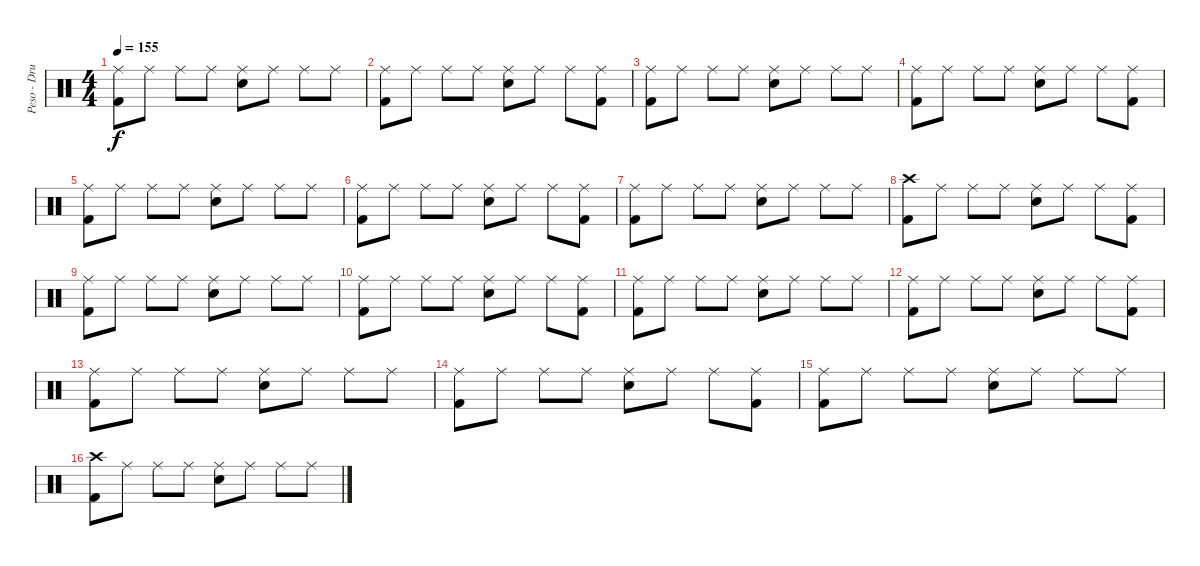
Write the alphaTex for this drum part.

\track ("Peso - Drums" "Peso - Dru") {instrument percussion}
\staff {score}
\articulation defaults
\ts (4 4)
\tempo 155
\clef neutral
\ks c
("Ride (middle)" "Kick (hit) 2").8{dy f} "Ride (middle)".8 "Ride (middle)".8 "Ride (middle)".8 ("Ride (middle)" "Electric Snare (hit)").8 "Ride (middle)".8 "Ride (middle)".8 "Ride (middle)".8 |
("Ride (middle)" "Kick (hit) 2").8 "Ride (middle)".8 "Ride (middle)".8 "Ride (middle)".8 ("Ride (middle)" "Electric Snare (hit)").8 "Ride (middle)".8 "Ride (middle)".8 ("Ride (middle)" "Kick (hit) 2").8 |
("Ride (middle)" "Kick (hit) 2").8 "Ride (middle)".8 "Ride (middle)".8 "Ride (middle)".8 ("Ride (middle)" "Electric Snare (hit)").8 "Ride (middle)".8 "Ride (middle)".8 "Ride (middle)".8 |
("Ride (middle)" "Kick (hit) 2").8{volume 10} "Ride (middle)".8 "Ride (middle)".8 "Ride (middle)".8 ("Ride (middle)" "Electric Snare (hit)").8 "Ride (middle)".8 "Ride (middle)".8 ("Ride (middle)" "Kick (hit) 2").8 |
("Ride (middle)" "Kick (hit) 2").8 "Ride (middle)".8 "Ride (middle)".8 "Ride (middle)".8 ("Ride (middle)" "Electric Snare (hit)").8 "Ride (middle)".8 "Ride (middle)".8 "Ride (middle)".8 |
("Ride (middle)" "Kick (hit) 2").8 "Ride (middle)".8 "Ride (middle)".8 "Ride (middle)".8 ("Ride (middle)" "Electric Snare (hit)").8 "Ride (middle)".8 "Ride (middle)".8 ("Ride (middle)" "Kick (hit) 2").8 |
("Ride (middle)" "Kick (hit) 2").8 "Ride (middle)".8 "Ride (middle)".8 "Ride (middle)".8 ("Ride (middle)" "Electric Snare (hit)").8 "Ride (middle)".8 "Ride (middle)".8 "Ride (middle)".8 |
("Crash high (hit)" "Kick (hit) 2").8{volume 8} "Ride (middle)".8 "Ride (middle)".8 "Ride (middle)".8 ("Ride (middle)" "Electric Snare (hit)").8 "Ride (middle)".8 "Ride (middle)".8 ("Ride (middle)" "Kick (hit) 2").8 |
("Ride (middle)" "Kick (hit) 2").8 "Ride (middle)".8 "Ride (middle)".8 "Ride (middle)".8 ("Ride (middle)" "Electric Snare (hit)").8 "Ride (middle)".8 "Ride (middle)".8 "Ride (middle)".8 |
("Ride (middle)" "Kick (hit) 2").8 "Ride (middle)".8 "Ride (middle)".8 "Ride (middle)".8 ("Ride (middle)" "Electric Snare (hit)").8 "Ride (middle)".8 "Ride (middle)".8 ("Ride (middle)" "Kick (hit) 2").8 |
("Ride (middle)" "Kick (hit) 2").8 "Ride (middle)".8 "Ride (middle)".8 "Ride (middle)".8 ("Ride (middle)" "Electric Snare (hit)").8 "Ride (middle)".8 "Ride (middle)".8 "Ride (middle)".8 |
("Ride (middle)" "Kick (hit) 2").8{volume 7} "Ride (middle)".8 "Ride (middle)".8 "Ride (middle)".8 ("Ride (middle)" "Electric Snare (hit)").8 "Ride (middle)".8 "Ride (middle)".8 ("Ride (middle)" "Kick (hit) 2").8 |
("Ride (middle)" "Kick (hit) 2").8 "Ride (middle)".8 "Ride (middle)".8 "Ride (middle)".8 ("Ride (middle)" "Electric Snare (hit)").8 "Ride (middle)".8 "Ride (middle)".8 "Ride (middle)".8 |
("Ride (middle)" "Kick (hit) 2").8 "Ride (middle)".8 "Ride (middle)".8 "Ride (middle)".8 ("Ride (middle)" "Electric Snare (hit)").8 "Ride (middle)".8 "Ride (middle)".8 ("Ride (middle)" "Kick (hit) 2").8 |
("Ride (middle)" "Kick (hit) 2").8 "Ride (middle)".8 "Ride (middle)".8 "Ride (middle)".8 ("Ride (middle)" "Electric Snare (hit)").8 "Ride (middle)".8 "Ride (middle)".8 "Ride (middle)".8 |
("Crash high (hit)" "Kick (hit) 2").8{volume 6} "Ride (middle)".8 "Ride (middle)".8 "Ride (middle)".8 ("Ride (middle)" "Electric Snare (hit)").8 "Ride (middle)".8 "Ride (middle)".8 "Ride (middle)".8
